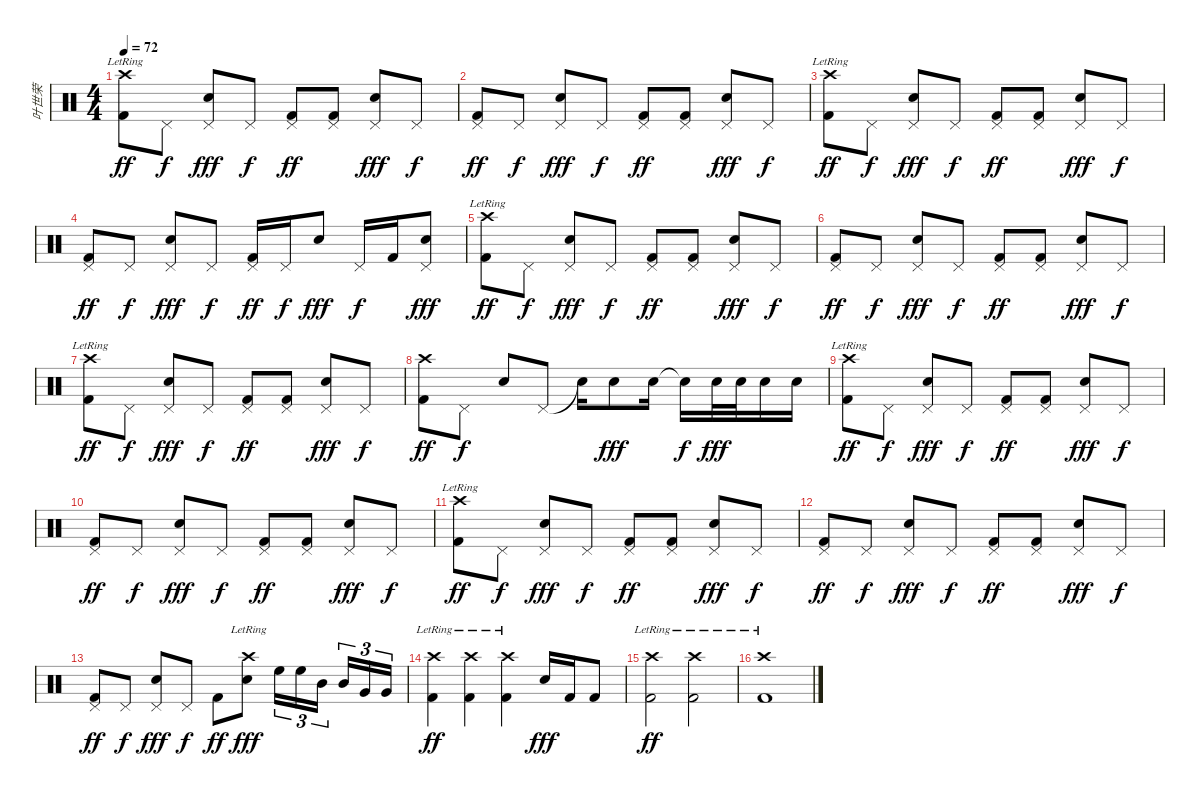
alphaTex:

\track ("叶世荣" "叶世荣") {instrument percussion}
\staff {score}
\articulation defaults
\ts (4 4)
\tempo 72
\clef neutral
\ks c
("Crash high (hit)"{lr} "Kick (hit) 2").8{dy ff} "Pedal Hi-Hat (hit)".8{dy f} ("Pedal Hi-Hat (hit)" "Electric Snare (hit)").8{dy fff} "Pedal Hi-Hat (hit)".8{dy f} ("Pedal Hi-Hat (hit)" "Kick (hit) 2").8{dy ff} ("Pedal Hi-Hat (hit)" "Kick (hit) 2").8 ("Pedal Hi-Hat (hit)" "Electric Snare (hit)").8{dy fff} "Pedal Hi-Hat (hit)".8{dy f} |
("Pedal Hi-Hat (hit)" "Kick (hit) 2").8{dy ff} "Pedal Hi-Hat (hit)".8{dy f} ("Pedal Hi-Hat (hit)" "Electric Snare (hit)").8{dy fff} "Pedal Hi-Hat (hit)".8{dy f} ("Pedal Hi-Hat (hit)" "Kick (hit) 2").8{dy ff} ("Pedal Hi-Hat (hit)" "Kick (hit) 2").8 ("Pedal Hi-Hat (hit)" "Electric Snare (hit)").8{dy fff} "Pedal Hi-Hat (hit)".8{dy f} |
("Crash high (hit)"{lr} "Kick (hit) 2").8{dy ff} "Pedal Hi-Hat (hit)".8{dy f} ("Pedal Hi-Hat (hit)" "Electric Snare (hit)").8{dy fff} "Pedal Hi-Hat (hit)".8{dy f} ("Pedal Hi-Hat (hit)" "Kick (hit) 2").8{dy ff} ("Pedal Hi-Hat (hit)" "Kick (hit) 2").8 ("Pedal Hi-Hat (hit)" "Electric Snare (hit)").8{dy fff} "Pedal Hi-Hat (hit)".8{dy f} |
("Pedal Hi-Hat (hit)" "Kick (hit) 2").8{dy ff} "Pedal Hi-Hat (hit)".8{dy f} ("Pedal Hi-Hat (hit)" "Electric Snare (hit)").8{dy fff} "Pedal Hi-Hat (hit)".8{dy f} ("Pedal Hi-Hat (hit)" "Kick (hit) 2").16{dy ff} "Pedal Hi-Hat (hit)".16{dy f} "Electric Snare (hit)".8{dy fff} "Pedal Hi-Hat (hit)".16{dy f} "Kick (hit) 2".16 ("Pedal Hi-Hat (hit)" "Electric Snare (hit)").8{dy fff} |
("Crash high (hit)"{lr} "Kick (hit) 2").8{dy ff} "Pedal Hi-Hat (hit)".8{dy f} ("Pedal Hi-Hat (hit)" "Electric Snare (hit)").8{dy fff} "Pedal Hi-Hat (hit)".8{dy f} ("Pedal Hi-Hat (hit)" "Kick (hit) 2").8{dy ff} ("Pedal Hi-Hat (hit)" "Kick (hit) 2").8 ("Pedal Hi-Hat (hit)" "Electric Snare (hit)").8{dy fff} "Pedal Hi-Hat (hit)".8{dy f} |
("Pedal Hi-Hat (hit)" "Kick (hit) 2").8{dy ff} "Pedal Hi-Hat (hit)".8{dy f} ("Pedal Hi-Hat (hit)" "Electric Snare (hit)").8{dy fff} "Pedal Hi-Hat (hit)".8{dy f} ("Pedal Hi-Hat (hit)" "Kick (hit) 2").8{dy ff} ("Pedal Hi-Hat (hit)" "Kick (hit) 2").8 ("Pedal Hi-Hat (hit)" "Electric Snare (hit)").8{dy fff} "Pedal Hi-Hat (hit)".8{dy f} |
("Crash high (hit)"{lr} "Kick (hit) 2").8{dy ff} "Pedal Hi-Hat (hit)".8{dy f} ("Pedal Hi-Hat (hit)" "Electric Snare (hit)").8{dy fff} "Pedal Hi-Hat (hit)".8{dy f} ("Pedal Hi-Hat (hit)" "Kick (hit) 2").8{dy ff} ("Pedal Hi-Hat (hit)" "Kick (hit) 2").8 ("Pedal Hi-Hat (hit)" "Electric Snare (hit)").8{dy fff} "Pedal Hi-Hat (hit)".8{dy f} |
("Crash high (hit)" "Kick (hit) 2").8{dy ff} "Pedal Hi-Hat (hit)".8{dy f} "Electric Snare (hit)".8 "Pedal Hi-Hat (hit)".8 "Snare (hit)"{t}.16 "Electric Snare (hit)".8{dy fff} "Electric Snare (hit)".16 "Snare (hit)"{t}.16{dy f} "Electric Snare (hit)".32{dy fff} "Electric Snare (hit)".32 "Electric Snare (hit)".16 "Electric Snare (hit)".16 |
("Crash high (hit)"{lr} "Kick (hit) 2").8{dy ff} "Pedal Hi-Hat (hit)".8{dy f} ("Pedal Hi-Hat (hit)" "Electric Snare (hit)").8{dy fff} "Pedal Hi-Hat (hit)".8{dy f} ("Pedal Hi-Hat (hit)" "Kick (hit) 2").8{dy ff} ("Pedal Hi-Hat (hit)" "Kick (hit) 2").8 ("Pedal Hi-Hat (hit)" "Electric Snare (hit)").8{dy fff} "Pedal Hi-Hat (hit)".8{dy f} |
("Pedal Hi-Hat (hit)" "Kick (hit) 2").8{dy ff} "Pedal Hi-Hat (hit)".8{dy f} ("Pedal Hi-Hat (hit)" "Electric Snare (hit)").8{dy fff} "Pedal Hi-Hat (hit)".8{dy f} ("Pedal Hi-Hat (hit)" "Kick (hit) 2").8{dy ff} ("Pedal Hi-Hat (hit)" "Kick (hit) 2").8 ("Pedal Hi-Hat (hit)" "Electric Snare (hit)").8{dy fff} "Pedal Hi-Hat (hit)".8{dy f} |
("Crash high (hit)"{lr} "Kick (hit) 2").8{dy ff} "Pedal Hi-Hat (hit)".8{dy f} ("Pedal Hi-Hat (hit)" "Electric Snare (hit)").8{dy fff} "Pedal Hi-Hat (hit)".8{dy f} ("Pedal Hi-Hat (hit)" "Kick (hit) 2").8{dy ff} ("Pedal Hi-Hat (hit)" "Kick (hit) 2").8 ("Pedal Hi-Hat (hit)" "Electric Snare (hit)").8{dy fff} "Pedal Hi-Hat (hit)".8{dy f} |
("Pedal Hi-Hat (hit)" "Kick (hit) 2").8{dy ff} "Pedal Hi-Hat (hit)".8{dy f} ("Pedal Hi-Hat (hit)" "Electric Snare (hit)").8{dy fff} "Pedal Hi-Hat (hit)".8{dy f} ("Pedal Hi-Hat (hit)" "Kick (hit) 2").8{dy ff} ("Pedal Hi-Hat (hit)" "Kick (hit) 2").8 ("Pedal Hi-Hat (hit)" "Electric Snare (hit)").8{dy fff} "Pedal Hi-Hat (hit)".8{dy f} |
("Pedal Hi-Hat (hit)" "Kick (hit) 2").8{dy ff} "Pedal Hi-Hat (hit)".8{dy f} ("Pedal Hi-Hat (hit)" "Electric Snare (hit)").8{dy fff} "Pedal Hi-Hat (hit)".8{dy f} "Kick (hit) 2".8{dy ff} ("Crash high (hit)"{lr} "Electric Snare (hit)").8{dy fff} "High Floor Tom (hit)".16{tu (3 2)} "High Floor Tom (hit)".16{tu (3 2)} "Mid Tom (hit)".16{tu (3 2)} "Mid Tom (hit)".16{tu (3 2)} "Very Low Tom (hit)".16{tu (3 2)} "Very Low Tom (hit)".16{tu (3 2)} |
("Crash high (hit)"{lr} "Kick (hit) 2").4{dy ff} ("Crash high (hit)"{lr} "Kick (hit) 2").4 ("Crash high (hit)"{lr} "Kick (hit) 2").4 "Electric Snare (hit)".16{dy fff} "Kick (hit) 2".16 "Kick (hit) 2".8 |
("Crash high (hit)"{lr} "Kick (hit) 2").2{dy ff} ("Crash high (hit)"{lr} "Kick (hit) 2").2 |
("Crash high (hit)"{lr} "Kick (hit) 2").1
